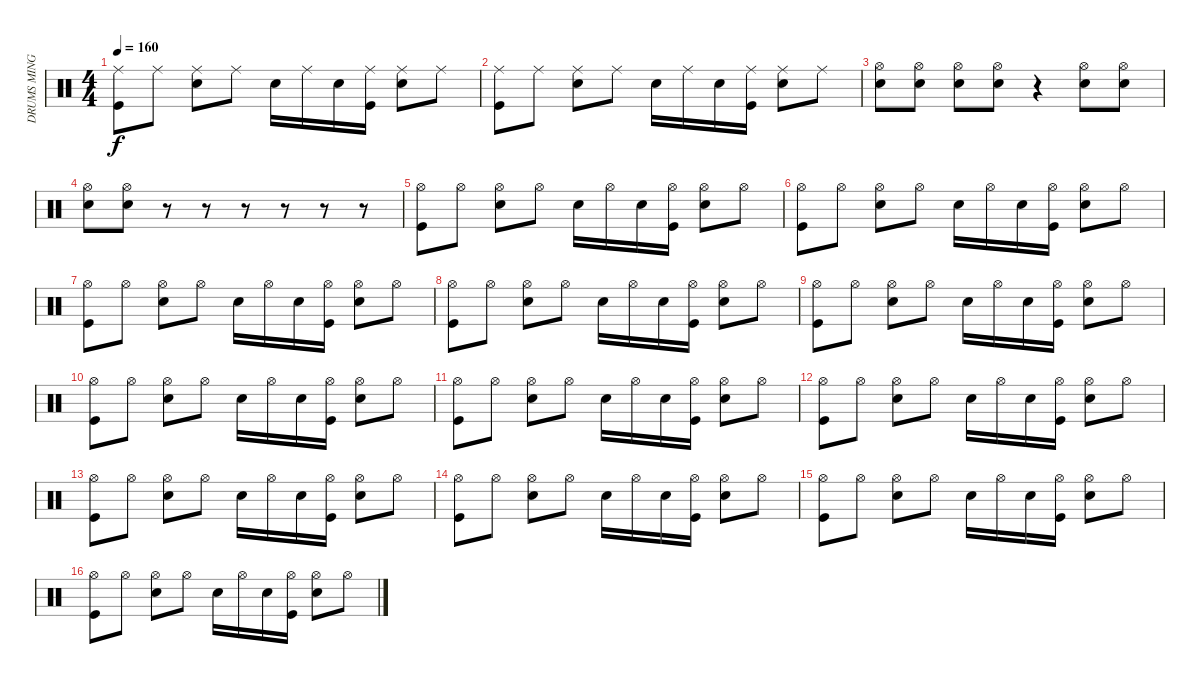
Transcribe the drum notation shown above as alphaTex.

\track ("DRUMS MING" "DRUMS MING") {instrument percussion}
\staff {score}
\articulation defaults
\ts (4 4)
\tempo 160
\clef neutral
\ks c
("Ride (middle)" "Kick (hit)").8{dy f} "Ride (middle)".8 ("Ride (middle)" "Snare (hit) 2").8 "Ride (middle)".8 "Snare (hit) 2".16 "Ride (middle)".16 "Snare (hit) 2".16 ("Ride (middle)" "Kick (hit)").16 ("Ride (middle)" "Snare (hit) 2").8 "Ride (middle)".8 |
("Ride (middle)" "Kick (hit)").8 "Ride (middle)".8 ("Ride (middle)" "Snare (hit) 2").8 "Ride (middle)".8 "Snare (hit) 2".16 "Ride (middle)".16 "Snare (hit) 2".16 ("Ride (middle)" "Kick (hit)").16 ("Ride (middle)" "Snare (hit) 2").8 "Ride (middle)".8 |
("Hi-Hat (open)" "Snare (hit) 2").8 ("Hi-Hat (open)" "Snare (hit) 2").8 ("Hi-Hat (open)" "Snare (hit) 2").8 ("Hi-Hat (open)" "Snare (hit) 2").8 r.4 ("Hi-Hat (open)" "Snare (hit) 2").8 ("Snare (hit) 2" "Hi-Hat (open)").8 |
("Snare (hit) 2" "Hi-Hat (open)").8 ("Snare (hit) 2" "Hi-Hat (open)").8 r.8 r.8 r.8 r.8 r.8 r.8 |
("Hi-Hat (open)" "Kick (hit)").8 "Hi-Hat (open)".8 ("Hi-Hat (open)" "Snare (hit) 2").8 "Hi-Hat (open)".8 "Snare (hit) 2".16 "Hi-Hat (open)".16 "Snare (hit) 2".16 ("Hi-Hat (open)" "Kick (hit)").16 ("Hi-Hat (open)" "Snare (hit) 2").8 "Hi-Hat (open)".8 |
("Hi-Hat (open)" "Kick (hit)").8 "Hi-Hat (open)".8 ("Hi-Hat (open)" "Snare (hit) 2").8 "Hi-Hat (open)".8 "Snare (hit) 2".16 "Hi-Hat (open)".16 "Snare (hit) 2".16 ("Hi-Hat (open)" "Kick (hit)").16 ("Hi-Hat (open)" "Snare (hit) 2").8 "Hi-Hat (open)".8 |
("Hi-Hat (open)" "Kick (hit)").8 "Hi-Hat (open)".8 ("Hi-Hat (open)" "Snare (hit) 2").8 "Hi-Hat (open)".8 "Snare (hit) 2".16 "Hi-Hat (open)".16 "Snare (hit) 2".16 ("Hi-Hat (open)" "Kick (hit)").16 ("Hi-Hat (open)" "Snare (hit) 2").8 "Hi-Hat (open)".8 |
("Hi-Hat (open)" "Kick (hit)").8 "Hi-Hat (open)".8 ("Hi-Hat (open)" "Snare (hit) 2").8 "Hi-Hat (open)".8 "Snare (hit) 2".16 "Hi-Hat (open)".16 "Snare (hit) 2".16 ("Hi-Hat (open)" "Kick (hit)").16 ("Hi-Hat (open)" "Snare (hit) 2").8 "Hi-Hat (open)".8 |
("Hi-Hat (open)" "Kick (hit)").8 "Hi-Hat (open)".8 ("Hi-Hat (open)" "Snare (hit) 2").8 "Hi-Hat (open)".8 "Snare (hit) 2".16 "Hi-Hat (open)".16 "Snare (hit) 2".16 ("Hi-Hat (open)" "Kick (hit)").16 ("Hi-Hat (open)" "Snare (hit) 2").8 "Hi-Hat (open)".8 |
("Hi-Hat (open)" "Kick (hit)").8 "Hi-Hat (open)".8 ("Hi-Hat (open)" "Snare (hit) 2").8 "Hi-Hat (open)".8 "Snare (hit) 2".16 "Hi-Hat (open)".16 "Snare (hit) 2".16 ("Hi-Hat (open)" "Kick (hit)").16 ("Hi-Hat (open)" "Snare (hit) 2").8 "Hi-Hat (open)".8 |
("Hi-Hat (open)" "Kick (hit)").8 "Hi-Hat (open)".8 ("Hi-Hat (open)" "Snare (hit) 2").8 "Hi-Hat (open)".8 "Snare (hit) 2".16 "Hi-Hat (open)".16 "Snare (hit) 2".16 ("Hi-Hat (open)" "Kick (hit)").16 ("Hi-Hat (open)" "Snare (hit) 2").8 "Hi-Hat (open)".8 |
("Hi-Hat (open)" "Kick (hit)").8 "Hi-Hat (open)".8 ("Hi-Hat (open)" "Snare (hit) 2").8 "Hi-Hat (open)".8 "Snare (hit) 2".16 "Hi-Hat (open)".16 "Snare (hit) 2".16 ("Hi-Hat (open)" "Kick (hit)").16 ("Hi-Hat (open)" "Snare (hit) 2").8 "Hi-Hat (open)".8 |
("Hi-Hat (open)" "Kick (hit)").8 "Hi-Hat (open)".8 ("Hi-Hat (open)" "Snare (hit) 2").8 "Hi-Hat (open)".8 "Snare (hit) 2".16 "Hi-Hat (open)".16 "Snare (hit) 2".16 ("Hi-Hat (open)" "Kick (hit)").16 ("Hi-Hat (open)" "Snare (hit) 2").8 "Hi-Hat (open)".8 |
("Hi-Hat (open)" "Kick (hit)").8 "Hi-Hat (open)".8 ("Hi-Hat (open)" "Snare (hit) 2").8 "Hi-Hat (open)".8 "Snare (hit) 2".16 "Hi-Hat (open)".16 "Snare (hit) 2".16 ("Hi-Hat (open)" "Kick (hit)").16 ("Hi-Hat (open)" "Snare (hit) 2").8 "Hi-Hat (open)".8 |
("Hi-Hat (open)" "Kick (hit)").8 "Hi-Hat (open)".8 ("Hi-Hat (open)" "Snare (hit) 2").8 "Hi-Hat (open)".8 "Snare (hit) 2".16 "Hi-Hat (open)".16 "Snare (hit) 2".16 ("Hi-Hat (open)" "Kick (hit)").16 ("Hi-Hat (open)" "Snare (hit) 2").8 "Hi-Hat (open)".8 |
("Hi-Hat (open)" "Kick (hit)").8 "Hi-Hat (open)".8 ("Hi-Hat (open)" "Snare (hit) 2").8 "Hi-Hat (open)".8 "Snare (hit) 2".16 "Hi-Hat (open)".16 "Snare (hit) 2".16 ("Hi-Hat (open)" "Kick (hit)").16 ("Hi-Hat (open)" "Snare (hit) 2").8 "Hi-Hat (open)".8
